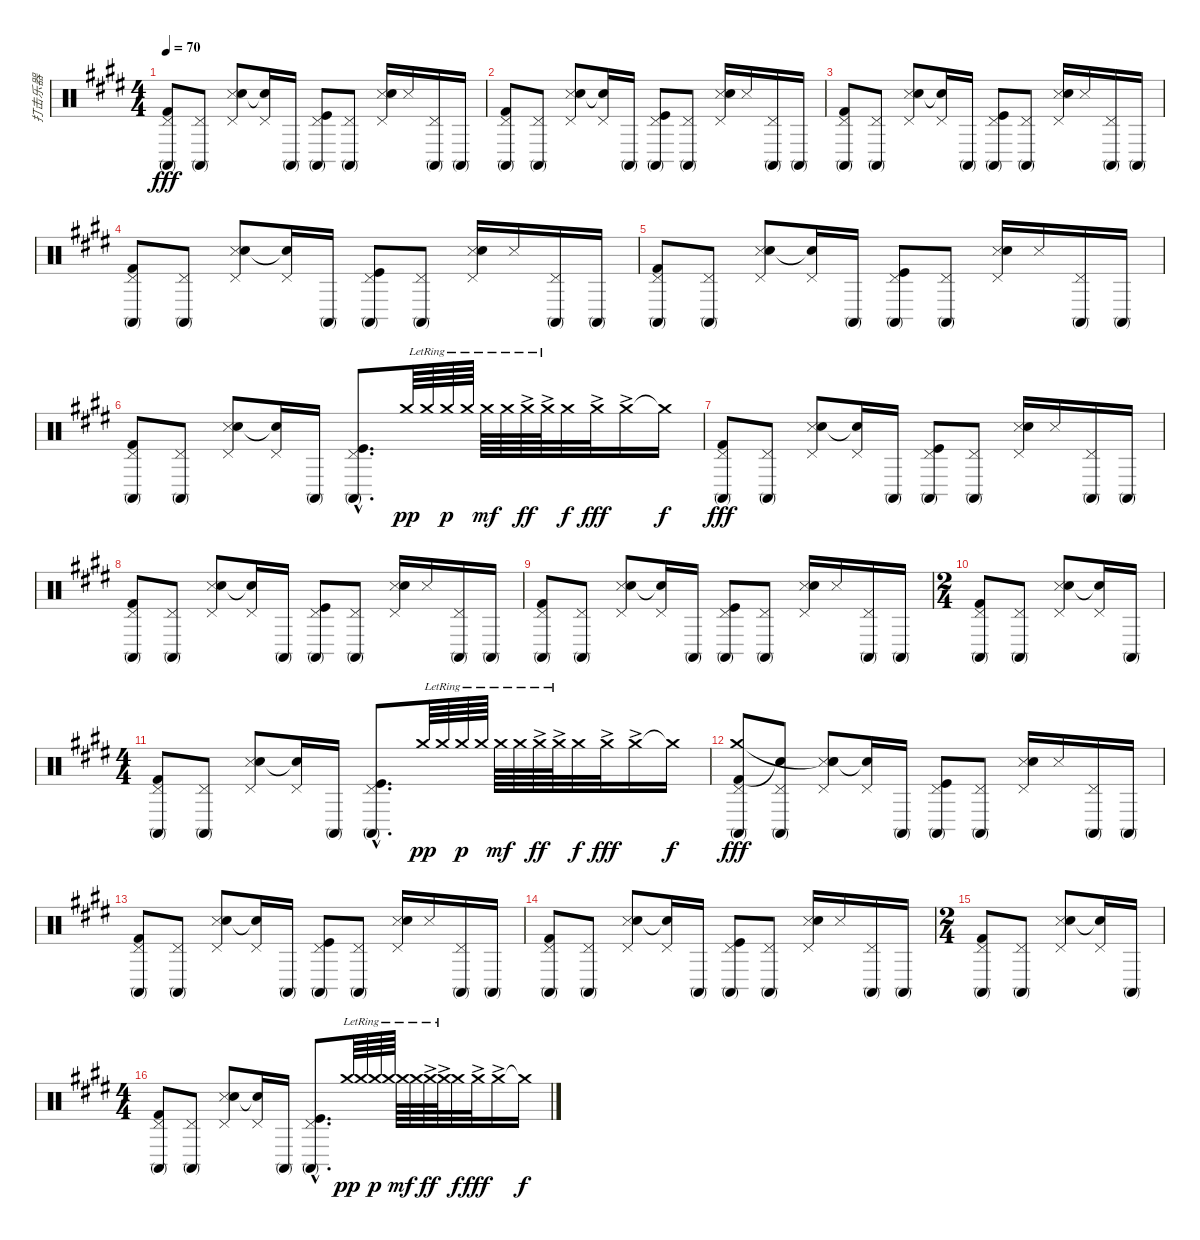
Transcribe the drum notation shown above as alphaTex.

\track ("打击乐器" "打击乐器") {instrument percussion}
\staff {score}
\articulation defaults
\ts (4 4)
\tempo 70
\clef neutral
\ks e
("Conga high (mute)" "Pedal Hi-Hat (hit)" "Kick (hit) 2").8{dy fff} ("Conga high (mute)" "Pedal Hi-Hat (hit)").8 ("Metronome (hit)" "Pedal Hi-Hat (hit)" "Hand Clap (hit)").8 ("Snare (hit)"{t} "Pedal Hi-Hat (hit)").16 "Conga high (mute)".16 ("Conga high (mute)" "Pedal Hi-Hat (hit)" "Kick (hit)").8 ("Conga high (mute)" "Pedal Hi-Hat (hit)").8 ("Metronome (hit)" "Pedal Hi-Hat (hit)" "Hand Clap (hit)").16 "Metronome (hit)".16 ("Conga high (mute)" "Pedal Hi-Hat (hit)").16 "Conga high (mute)".16 |
("Conga high (mute)" "Pedal Hi-Hat (hit)" "Kick (hit) 2").8 ("Conga high (mute)" "Pedal Hi-Hat (hit)").8 ("Metronome (hit)" "Pedal Hi-Hat (hit)" "Hand Clap (hit)").8 ("Snare (hit)"{t} "Pedal Hi-Hat (hit)").16 "Conga high (mute)".16 ("Conga high (mute)" "Pedal Hi-Hat (hit)" "Kick (hit)").8 ("Conga high (mute)" "Pedal Hi-Hat (hit)").8 ("Metronome (hit)" "Pedal Hi-Hat (hit)" "Hand Clap (hit)").16 "Metronome (hit)".16 ("Conga high (mute)" "Pedal Hi-Hat (hit)").16 "Conga high (mute)".16 |
("Conga high (mute)" "Pedal Hi-Hat (hit)" "Kick (hit) 2").8 ("Conga high (mute)" "Pedal Hi-Hat (hit)").8 ("Metronome (hit)" "Pedal Hi-Hat (hit)" "Hand Clap (hit)").8 ("Snare (hit)"{t} "Pedal Hi-Hat (hit)").16 "Conga high (mute)".16 ("Conga high (mute)" "Pedal Hi-Hat (hit)" "Kick (hit)").8 ("Conga high (mute)" "Pedal Hi-Hat (hit)").8 ("Metronome (hit)" "Pedal Hi-Hat (hit)" "Hand Clap (hit)").16 "Metronome (hit)".16 ("Conga high (mute)" "Pedal Hi-Hat (hit)").16 "Conga high (mute)".16 |
("Conga high (mute)" "Pedal Hi-Hat (hit)" "Kick (hit) 2").8 ("Conga high (mute)" "Pedal Hi-Hat (hit)").8 ("Metronome (hit)" "Pedal Hi-Hat (hit)" "Hand Clap (hit)").8 ("Snare (hit)"{t} "Pedal Hi-Hat (hit)").16 "Conga high (mute)".16 ("Conga high (mute)" "Pedal Hi-Hat (hit)" "Kick (hit)").8 ("Conga high (mute)" "Pedal Hi-Hat (hit)").8 ("Metronome (hit)" "Pedal Hi-Hat (hit)" "Hand Clap (hit)").16 "Metronome (hit)".16 ("Conga high (mute)" "Pedal Hi-Hat (hit)").16 "Conga high (mute)".16 |
("Conga high (mute)" "Pedal Hi-Hat (hit)" "Kick (hit) 2").8 ("Conga high (mute)" "Pedal Hi-Hat (hit)").8 ("Metronome (hit)" "Pedal Hi-Hat (hit)" "Hand Clap (hit)").8 ("Snare (hit)"{t} "Pedal Hi-Hat (hit)").16 "Conga high (mute)".16 ("Conga high (mute)" "Pedal Hi-Hat (hit)" "Kick (hit)").8 ("Conga high (mute)" "Pedal Hi-Hat (hit)").8 ("Metronome (hit)" "Pedal Hi-Hat (hit)" "Hand Clap (hit)").16 "Metronome (hit)".16 ("Conga high (mute)" "Pedal Hi-Hat (hit)").16 "Conga high (mute)".16 |
("Conga high (mute)" "Pedal Hi-Hat (hit)" "Kick (hit) 2").8 ("Conga high (mute)" "Pedal Hi-Hat (hit)").8 ("Metronome (hit)" "Pedal Hi-Hat (hit)" "Hand Clap (hit)").8 ("Snare (hit)"{t} "Pedal Hi-Hat (hit)").16 "Conga high (mute)".16 ("Conga high (mute)"{hac} "Pedal Hi-Hat (hit)"{hac} "Kick (hit)"{hac}).8{d} "Crash medium (hit)".64{dy pp} "Crash medium (hit)"{lr}.64 "Crash medium (hit)"{lr}.64{dy p} "Crash medium (hit)"{lr}.64 "Crash medium (hit)"{lr}.64{dy mf} "Crash medium (hit)"{lr}.64 "Crash medium (hit)"{ac lr}.64{dy ff} "Crash medium (hit)"{ac lr}.64 "Crash medium (hit)".32{dy f} "Crash medium (hit)"{ac}.32{dy fff} "Crash medium (hit)"{ac}.16 "Crash medium (hit)"{t}.16{dy f} |
("Conga high (mute)" "Pedal Hi-Hat (hit)" "Kick (hit) 2").8{dy fff} ("Conga high (mute)" "Pedal Hi-Hat (hit)").8 ("Metronome (hit)" "Pedal Hi-Hat (hit)" "Hand Clap (hit)").8 ("Snare (hit)"{t} "Pedal Hi-Hat (hit)").16 "Conga high (mute)".16 ("Conga high (mute)" "Pedal Hi-Hat (hit)" "Kick (hit)").8 ("Conga high (mute)" "Pedal Hi-Hat (hit)").8 ("Metronome (hit)" "Pedal Hi-Hat (hit)" "Hand Clap (hit)").16 "Metronome (hit)".16 ("Conga high (mute)" "Pedal Hi-Hat (hit)").16 "Conga high (mute)".16 |
("Conga high (mute)" "Pedal Hi-Hat (hit)" "Kick (hit) 2").8 ("Conga high (mute)" "Pedal Hi-Hat (hit)").8 ("Metronome (hit)" "Pedal Hi-Hat (hit)" "Hand Clap (hit)").8 ("Snare (hit)"{t} "Pedal Hi-Hat (hit)").16 "Conga high (mute)".16 ("Conga high (mute)" "Pedal Hi-Hat (hit)" "Kick (hit)").8 ("Conga high (mute)" "Pedal Hi-Hat (hit)").8 ("Metronome (hit)" "Pedal Hi-Hat (hit)" "Hand Clap (hit)").16 "Metronome (hit)".16 ("Conga high (mute)" "Pedal Hi-Hat (hit)").16 "Conga high (mute)".16 |
("Conga high (mute)" "Pedal Hi-Hat (hit)" "Kick (hit) 2").8 ("Conga high (mute)" "Pedal Hi-Hat (hit)").8 ("Metronome (hit)" "Pedal Hi-Hat (hit)" "Hand Clap (hit)").8 ("Snare (hit)"{t} "Pedal Hi-Hat (hit)").16 "Conga high (mute)".16 ("Conga high (mute)" "Pedal Hi-Hat (hit)" "Kick (hit)").8 ("Conga high (mute)" "Pedal Hi-Hat (hit)").8 ("Metronome (hit)" "Pedal Hi-Hat (hit)" "Hand Clap (hit)").16 "Metronome (hit)".16 ("Conga high (mute)" "Pedal Hi-Hat (hit)").16 "Conga high (mute)".16 |
\ts (2 4)
("Conga high (mute)" "Pedal Hi-Hat (hit)" "Kick (hit) 2").8 ("Conga high (mute)" "Pedal Hi-Hat (hit)").8 ("Metronome (hit)" "Pedal Hi-Hat (hit)" "Hand Clap (hit)").8 ("Snare (hit)"{t} "Pedal Hi-Hat (hit)").16 "Conga high (mute)".16 |
\ts (4 4)
("Conga high (mute)" "Pedal Hi-Hat (hit)" "Kick (hit) 2").8 ("Conga high (mute)" "Pedal Hi-Hat (hit)").8 ("Metronome (hit)" "Pedal Hi-Hat (hit)" "Hand Clap (hit)").8 ("Snare (hit)"{t} "Pedal Hi-Hat (hit)").16 "Conga high (mute)".16 ("Conga high (mute)"{hac} "Pedal Hi-Hat (hit)"{hac} "Kick (hit)"{hac}).8{d} "Crash medium (hit)".64{dy pp} "Crash medium (hit)"{lr}.64 "Crash medium (hit)"{lr}.64{dy p} "Crash medium (hit)"{lr}.64 "Crash medium (hit)"{lr}.64{dy mf} "Crash medium (hit)"{lr}.64 "Crash medium (hit)"{ac lr}.64{dy ff} "Crash medium (hit)"{ac lr}.64 "Crash medium (hit)".32{dy f} "Crash medium (hit)"{ac}.32{dy fff} "Crash medium (hit)"{ac}.16 "Crash medium (hit)"{t}.16{dy f} |
("Conga high (mute)" "Pedal Hi-Hat (hit)" "Kick (hit) 2" "Crash medium (hit)").8{dy fff} ("Conga high (mute)" "Pedal Hi-Hat (hit)" "Snare (hit)"{t}).8 ("Metronome (hit)" "Pedal Hi-Hat (hit)" "Hand Clap (hit)" "Snare (hit)"{t}).8 ("Snare (hit)"{t} "Pedal Hi-Hat (hit)").16 "Conga high (mute)".16 ("Conga high (mute)" "Pedal Hi-Hat (hit)" "Kick (hit)").8 ("Conga high (mute)" "Pedal Hi-Hat (hit)").8 ("Metronome (hit)" "Pedal Hi-Hat (hit)" "Hand Clap (hit)").16 "Metronome (hit)".16 ("Conga high (mute)" "Pedal Hi-Hat (hit)").16 "Conga high (mute)".16 |
("Conga high (mute)" "Pedal Hi-Hat (hit)" "Kick (hit) 2").8 ("Conga high (mute)" "Pedal Hi-Hat (hit)").8 ("Metronome (hit)" "Pedal Hi-Hat (hit)" "Hand Clap (hit)").8 ("Snare (hit)"{t} "Pedal Hi-Hat (hit)").16 "Conga high (mute)".16 ("Conga high (mute)" "Pedal Hi-Hat (hit)" "Kick (hit)").8 ("Conga high (mute)" "Pedal Hi-Hat (hit)").8 ("Metronome (hit)" "Pedal Hi-Hat (hit)" "Hand Clap (hit)").16 "Metronome (hit)".16 ("Conga high (mute)" "Pedal Hi-Hat (hit)").16 "Conga high (mute)".16 |
("Conga high (mute)" "Pedal Hi-Hat (hit)" "Kick (hit) 2").8 ("Conga high (mute)" "Pedal Hi-Hat (hit)").8 ("Metronome (hit)" "Pedal Hi-Hat (hit)" "Hand Clap (hit)").8 ("Snare (hit)"{t} "Pedal Hi-Hat (hit)").16 "Conga high (mute)".16 ("Conga high (mute)" "Pedal Hi-Hat (hit)" "Kick (hit)").8 ("Conga high (mute)" "Pedal Hi-Hat (hit)").8 ("Metronome (hit)" "Pedal Hi-Hat (hit)" "Hand Clap (hit)").16 "Metronome (hit)".16 ("Conga high (mute)" "Pedal Hi-Hat (hit)").16 "Conga high (mute)".16 |
\ts (2 4)
("Conga high (mute)" "Pedal Hi-Hat (hit)" "Kick (hit) 2").8 ("Conga high (mute)" "Pedal Hi-Hat (hit)").8 ("Metronome (hit)" "Pedal Hi-Hat (hit)" "Hand Clap (hit)").8 ("Snare (hit)"{t} "Pedal Hi-Hat (hit)").16 "Conga high (mute)".16 |
\ts (4 4)
("Conga high (mute)" "Pedal Hi-Hat (hit)" "Kick (hit) 2").8 ("Conga high (mute)" "Pedal Hi-Hat (hit)").8 ("Metronome (hit)" "Pedal Hi-Hat (hit)" "Hand Clap (hit)").8 ("Snare (hit)"{t} "Pedal Hi-Hat (hit)").16 "Conga high (mute)".16 ("Conga high (mute)"{hac} "Pedal Hi-Hat (hit)"{hac} "Kick (hit)"{hac}).8{d} "Crash medium (hit)".64{dy pp} "Crash medium (hit)"{lr}.64 "Crash medium (hit)"{lr}.64{dy p} "Crash medium (hit)"{lr}.64 "Crash medium (hit)"{lr}.64{dy mf} "Crash medium (hit)"{lr}.64 "Crash medium (hit)"{ac lr}.64{dy ff} "Crash medium (hit)"{ac lr}.64 "Crash medium (hit)".32{dy f} "Crash medium (hit)"{ac}.32{dy fff} "Crash medium (hit)"{ac}.16 "Crash medium (hit)"{t}.16{dy f}
